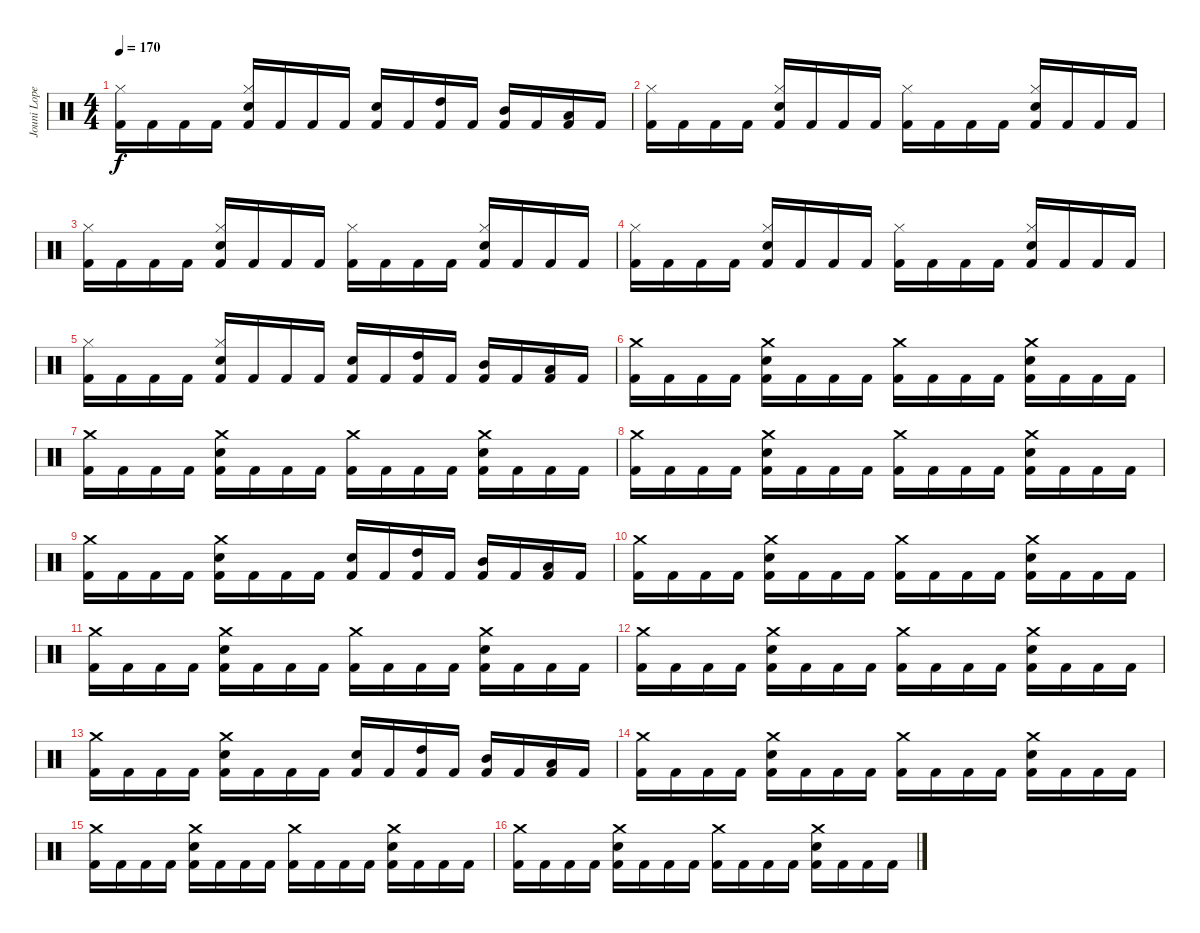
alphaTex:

\track ("Jouni Lopez (Bateria) 17 años" "Jouni Lope") {instrument percussion}
\staff {score}
\articulation defaults
\ts (4 4)
\tempo 170
\clef neutral
\ks c
("Kick (hit) 2" "Hi-Hat (closed)").16{dy f} "Kick (hit) 2".16 "Kick (hit) 2".16 "Kick (hit) 2".16 ("Kick (hit) 2" "Snare (hit) 2" "Hi-Hat (closed)").16 "Kick (hit) 2".16 "Kick (hit) 2".16 "Kick (hit) 2".16 ("Kick (hit) 2" "Snare (hit) 2").16 "Kick (hit) 2".16 ("Kick (hit) 2" "High Tom (hit)").16 "Kick (hit) 2".16 ("Kick (hit) 2" "Mid Tom (hit)").16 "Kick (hit) 2".16 ("Kick (hit) 2" "Low Tom (hit)").16 "Kick (hit) 2".16 |
("Kick (hit) 2" "Hi-Hat (closed)").16 "Kick (hit) 2".16 "Kick (hit) 2".16 "Kick (hit) 2".16 ("Kick (hit) 2" "Snare (hit) 2" "Hi-Hat (closed)").16 "Kick (hit) 2".16 "Kick (hit) 2".16 "Kick (hit) 2".16 ("Kick (hit) 2" "Hi-Hat (closed)").16 "Kick (hit) 2".16 "Kick (hit) 2".16 "Kick (hit) 2".16 ("Kick (hit) 2" "Snare (hit) 2" "Hi-Hat (closed)").16 "Kick (hit) 2".16 "Kick (hit) 2".16 "Kick (hit) 2".16 |
("Kick (hit) 2" "Hi-Hat (closed)").16 "Kick (hit) 2".16 "Kick (hit) 2".16 "Kick (hit) 2".16 ("Kick (hit) 2" "Snare (hit) 2" "Hi-Hat (closed)").16 "Kick (hit) 2".16 "Kick (hit) 2".16 "Kick (hit) 2".16 ("Kick (hit) 2" "Hi-Hat (closed)").16 "Kick (hit) 2".16 "Kick (hit) 2".16 "Kick (hit) 2".16 ("Kick (hit) 2" "Snare (hit) 2" "Hi-Hat (closed)").16 "Kick (hit) 2".16 "Kick (hit) 2".16 "Kick (hit) 2".16 |
("Kick (hit) 2" "Hi-Hat (closed)").16 "Kick (hit) 2".16 "Kick (hit) 2".16 "Kick (hit) 2".16 ("Kick (hit) 2" "Snare (hit) 2" "Hi-Hat (closed)").16 "Kick (hit) 2".16 "Kick (hit) 2".16 "Kick (hit) 2".16 ("Kick (hit) 2" "Hi-Hat (closed)").16 "Kick (hit) 2".16 "Kick (hit) 2".16 "Kick (hit) 2".16 ("Kick (hit) 2" "Snare (hit) 2" "Hi-Hat (closed)").16 "Kick (hit) 2".16 "Kick (hit) 2".16 "Kick (hit) 2".16 |
("Kick (hit) 2" "Hi-Hat (closed)").16 "Kick (hit) 2".16 "Kick (hit) 2".16 "Kick (hit) 2".16 ("Kick (hit) 2" "Snare (hit) 2" "Hi-Hat (closed)").16 "Kick (hit) 2".16 "Kick (hit) 2".16 "Kick (hit) 2".16 ("Kick (hit) 2" "Snare (hit) 2").16 "Kick (hit) 2".16 ("Kick (hit) 2" "High Tom (hit)").16 "Kick (hit) 2".16 ("Kick (hit) 2" "Mid Tom (hit)").16 "Kick (hit) 2".16 ("Kick (hit) 2" "Low Tom (hit)").16 "Kick (hit) 2".16 |
("Kick (hit) 2" "Crash medium (hit)").16 "Kick (hit) 2".16 "Kick (hit) 2".16 "Kick (hit) 2".16 ("Kick (hit) 2" "Snare (hit) 2" "Crash medium (hit)").16 "Kick (hit) 2".16 "Kick (hit) 2".16 "Kick (hit) 2".16 ("Kick (hit) 2" "Crash medium (hit)").16 "Kick (hit) 2".16 "Kick (hit) 2".16 "Kick (hit) 2".16 ("Kick (hit) 2" "Snare (hit) 2" "Crash medium (hit)").16 "Kick (hit) 2".16 "Kick (hit) 2".16 "Kick (hit) 2".16 |
("Kick (hit) 2" "Crash medium (hit)").16 "Kick (hit) 2".16 "Kick (hit) 2".16 "Kick (hit) 2".16 ("Kick (hit) 2" "Snare (hit) 2" "Crash medium (hit)").16 "Kick (hit) 2".16 "Kick (hit) 2".16 "Kick (hit) 2".16 ("Kick (hit) 2" "Crash medium (hit)").16 "Kick (hit) 2".16 "Kick (hit) 2".16 "Kick (hit) 2".16 ("Kick (hit) 2" "Snare (hit) 2" "Crash medium (hit)").16 "Kick (hit) 2".16 "Kick (hit) 2".16 "Kick (hit) 2".16 |
("Kick (hit) 2" "Crash medium (hit)").16 "Kick (hit) 2".16 "Kick (hit) 2".16 "Kick (hit) 2".16 ("Kick (hit) 2" "Snare (hit) 2" "Crash medium (hit)").16 "Kick (hit) 2".16 "Kick (hit) 2".16 "Kick (hit) 2".16 ("Kick (hit) 2" "Crash medium (hit)").16 "Kick (hit) 2".16 "Kick (hit) 2".16 "Kick (hit) 2".16 ("Kick (hit) 2" "Snare (hit) 2" "Crash medium (hit)").16 "Kick (hit) 2".16 "Kick (hit) 2".16 "Kick (hit) 2".16 |
("Kick (hit) 2" "Crash medium (hit)").16 "Kick (hit) 2".16 "Kick (hit) 2".16 "Kick (hit) 2".16 ("Kick (hit) 2" "Snare (hit) 2" "Crash medium (hit)").16 "Kick (hit) 2".16 "Kick (hit) 2".16 "Kick (hit) 2".16 ("Kick (hit) 2" "Snare (hit) 2").16 "Kick (hit) 2".16 ("Kick (hit) 2" "High Tom (hit)").16 "Kick (hit) 2".16 ("Kick (hit) 2" "Mid Tom (hit)").16 "Kick (hit) 2".16 ("Kick (hit) 2" "Low Tom (hit)").16 "Kick (hit) 2".16 |
("Kick (hit) 2" "Crash medium (hit)").16 "Kick (hit) 2".16 "Kick (hit) 2".16 "Kick (hit) 2".16 ("Kick (hit) 2" "Snare (hit) 2" "Crash medium (hit)").16 "Kick (hit) 2".16 "Kick (hit) 2".16 "Kick (hit) 2".16 ("Kick (hit) 2" "Crash medium (hit)").16 "Kick (hit) 2".16 "Kick (hit) 2".16 "Kick (hit) 2".16 ("Kick (hit) 2" "Snare (hit) 2" "Crash medium (hit)").16 "Kick (hit) 2".16 "Kick (hit) 2".16 "Kick (hit) 2".16 |
("Kick (hit) 2" "Crash medium (hit)").16 "Kick (hit) 2".16 "Kick (hit) 2".16 "Kick (hit) 2".16 ("Kick (hit) 2" "Snare (hit) 2" "Crash medium (hit)").16 "Kick (hit) 2".16 "Kick (hit) 2".16 "Kick (hit) 2".16 ("Kick (hit) 2" "Crash medium (hit)").16 "Kick (hit) 2".16 "Kick (hit) 2".16 "Kick (hit) 2".16 ("Kick (hit) 2" "Snare (hit) 2" "Crash medium (hit)").16 "Kick (hit) 2".16 "Kick (hit) 2".16 "Kick (hit) 2".16 |
("Kick (hit) 2" "Crash medium (hit)").16 "Kick (hit) 2".16 "Kick (hit) 2".16 "Kick (hit) 2".16 ("Kick (hit) 2" "Snare (hit) 2" "Crash medium (hit)").16 "Kick (hit) 2".16 "Kick (hit) 2".16 "Kick (hit) 2".16 ("Kick (hit) 2" "Crash medium (hit)").16 "Kick (hit) 2".16 "Kick (hit) 2".16 "Kick (hit) 2".16 ("Kick (hit) 2" "Snare (hit) 2" "Crash medium (hit)").16 "Kick (hit) 2".16 "Kick (hit) 2".16 "Kick (hit) 2".16 |
("Kick (hit) 2" "Crash medium (hit)").16 "Kick (hit) 2".16 "Kick (hit) 2".16 "Kick (hit) 2".16 ("Kick (hit) 2" "Snare (hit) 2" "Crash medium (hit)").16 "Kick (hit) 2".16 "Kick (hit) 2".16 "Kick (hit) 2".16 ("Kick (hit) 2" "Snare (hit) 2").16 "Kick (hit) 2".16 ("Kick (hit) 2" "High Tom (hit)").16 "Kick (hit) 2".16 ("Kick (hit) 2" "Mid Tom (hit)").16 "Kick (hit) 2".16 ("Kick (hit) 2" "Low Tom (hit)").16 "Kick (hit) 2".16 |
("Kick (hit) 2" "Crash medium (hit)").16 "Kick (hit) 2".16 "Kick (hit) 2".16 "Kick (hit) 2".16 ("Kick (hit) 2" "Snare (hit) 2" "Crash medium (hit)").16 "Kick (hit) 2".16 "Kick (hit) 2".16 "Kick (hit) 2".16 ("Kick (hit) 2" "Crash medium (hit)").16 "Kick (hit) 2".16 "Kick (hit) 2".16 "Kick (hit) 2".16 ("Kick (hit) 2" "Snare (hit) 2" "Crash medium (hit)").16 "Kick (hit) 2".16 "Kick (hit) 2".16 "Kick (hit) 2".16 |
("Kick (hit) 2" "Crash medium (hit)").16 "Kick (hit) 2".16 "Kick (hit) 2".16 "Kick (hit) 2".16 ("Kick (hit) 2" "Snare (hit) 2" "Crash medium (hit)").16 "Kick (hit) 2".16 "Kick (hit) 2".16 "Kick (hit) 2".16 ("Kick (hit) 2" "Crash medium (hit)").16 "Kick (hit) 2".16 "Kick (hit) 2".16 "Kick (hit) 2".16 ("Kick (hit) 2" "Snare (hit) 2" "Crash medium (hit)").16 "Kick (hit) 2".16 "Kick (hit) 2".16 "Kick (hit) 2".16 |
("Kick (hit) 2" "Crash medium (hit)").16 "Kick (hit) 2".16 "Kick (hit) 2".16 "Kick (hit) 2".16 ("Kick (hit) 2" "Snare (hit) 2" "Crash medium (hit)").16 "Kick (hit) 2".16 "Kick (hit) 2".16 "Kick (hit) 2".16 ("Kick (hit) 2" "Crash medium (hit)").16 "Kick (hit) 2".16 "Kick (hit) 2".16 "Kick (hit) 2".16 ("Kick (hit) 2" "Snare (hit) 2" "Crash medium (hit)").16 "Kick (hit) 2".16 "Kick (hit) 2".16 "Kick (hit) 2".16
